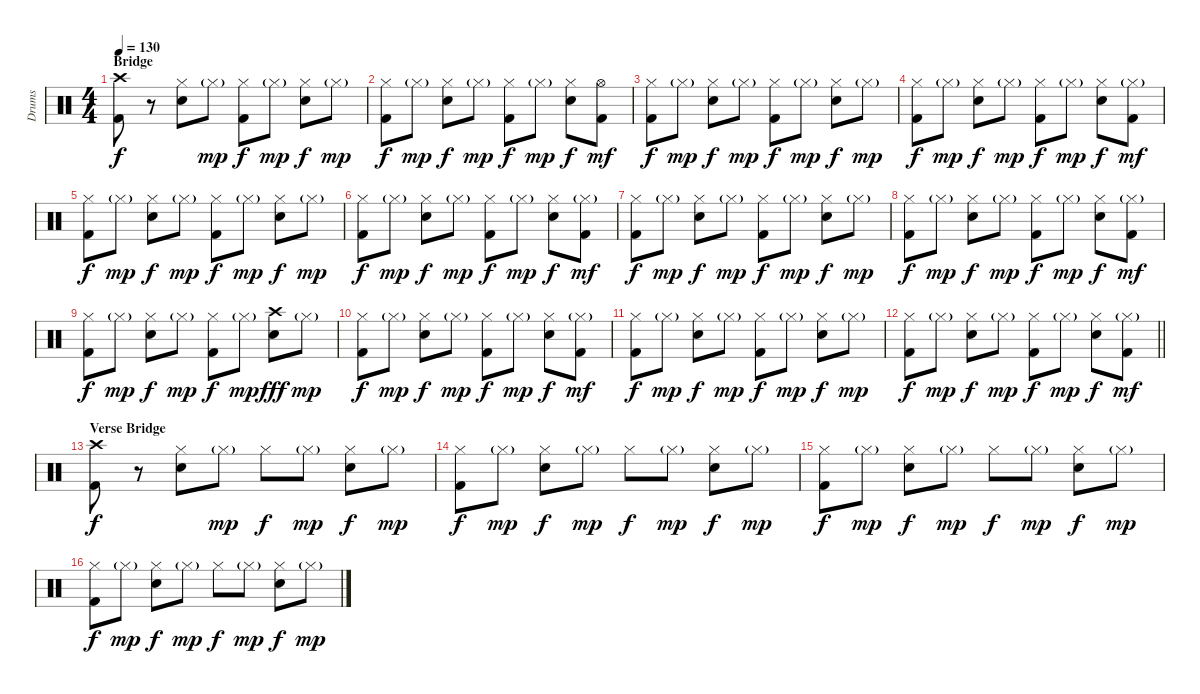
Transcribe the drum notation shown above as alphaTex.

\track ("Drums" "Drums") {instrument percussion}
\staff {score}
\articulation defaults
\ts (4 4)
\section ("" "Bridge")
\tempo 130
\clef neutral
\ks c
("Crash high (hit)" "Kick (hit) 2").8{dy f} r.8 ("Hi-Hat (closed)" "Snare (hit) 2").8 "Hi-Hat (closed)"{g}.8{dy mp} ("Hi-Hat (closed)" "Kick (hit) 2").8{dy f} "Hi-Hat (closed)"{g}.8{dy mp} ("Hi-Hat (closed)" "Snare (hit) 2").8{dy f} "Hi-Hat (closed)"{g}.8{dy mp} |
("Hi-Hat (closed)" "Kick (hit) 2").8{dy f} "Hi-Hat (closed)"{g}.8{dy mp} ("Hi-Hat (closed)" "Snare (hit) 2").8{dy f} "Hi-Hat (closed)"{g}.8{dy mp} ("Hi-Hat (closed)" "Kick (hit) 2").8{dy f} "Hi-Hat (closed)"{g}.8{dy mp} ("Hi-Hat (closed)" "Snare (hit) 2").8{dy f} ("Hi-Hat (open)" "Kick (hit) 2").8{dy mf} |
("Hi-Hat (closed)" "Kick (hit) 2").8{dy f} "Hi-Hat (closed)"{g}.8{dy mp} ("Hi-Hat (closed)" "Snare (hit) 2").8{dy f} "Hi-Hat (closed)"{g}.8{dy mp} ("Hi-Hat (closed)" "Kick (hit) 2").8{dy f} "Hi-Hat (closed)"{g}.8{dy mp} ("Hi-Hat (closed)" "Snare (hit) 2").8{dy f} "Hi-Hat (closed)"{g}.8{dy mp} |
("Hi-Hat (closed)" "Kick (hit) 2").8{dy f} "Hi-Hat (closed)"{g}.8{dy mp} ("Hi-Hat (closed)" "Snare (hit) 2").8{dy f} "Hi-Hat (closed)"{g}.8{dy mp} ("Hi-Hat (closed)" "Kick (hit) 2").8{dy f} "Hi-Hat (closed)"{g}.8{dy mp} ("Hi-Hat (closed)" "Snare (hit) 2").8{dy f} ("Hi-Hat (closed)"{g} "Kick (hit) 2").8{dy mf} |
("Hi-Hat (closed)" "Kick (hit) 2").8{dy f} "Hi-Hat (closed)"{g}.8{dy mp} ("Hi-Hat (closed)" "Snare (hit) 2").8{dy f} "Hi-Hat (closed)"{g}.8{dy mp} ("Hi-Hat (closed)" "Kick (hit) 2").8{dy f} "Hi-Hat (closed)"{g}.8{dy mp} ("Hi-Hat (closed)" "Snare (hit) 2").8{dy f} "Hi-Hat (closed)"{g}.8{dy mp} |
("Hi-Hat (closed)" "Kick (hit) 2").8{dy f} "Hi-Hat (closed)"{g}.8{dy mp} ("Hi-Hat (closed)" "Snare (hit) 2").8{dy f} "Hi-Hat (closed)"{g}.8{dy mp} ("Hi-Hat (closed)" "Kick (hit) 2").8{dy f} "Hi-Hat (closed)"{g}.8{dy mp} ("Hi-Hat (closed)" "Snare (hit) 2").8{dy f} ("Hi-Hat (closed)"{g} "Kick (hit) 2").8{dy mf} |
("Hi-Hat (closed)" "Kick (hit) 2").8{dy f} "Hi-Hat (closed)"{g}.8{dy mp} ("Hi-Hat (closed)" "Snare (hit) 2").8{dy f} "Hi-Hat (closed)"{g}.8{dy mp} ("Hi-Hat (closed)" "Kick (hit) 2").8{dy f} "Hi-Hat (closed)"{g}.8{dy mp} ("Hi-Hat (closed)" "Snare (hit) 2").8{dy f} "Hi-Hat (closed)"{g}.8{dy mp} |
("Hi-Hat (closed)" "Kick (hit) 2").8{dy f} "Hi-Hat (closed)"{g}.8{dy mp} ("Hi-Hat (closed)" "Snare (hit) 2").8{dy f} "Hi-Hat (closed)"{g}.8{dy mp} ("Hi-Hat (closed)" "Kick (hit) 2").8{dy f} "Hi-Hat (closed)"{g}.8{dy mp} ("Hi-Hat (closed)" "Snare (hit) 2").8{dy f} ("Hi-Hat (closed)"{g} "Kick (hit) 2").8{dy mf} |
("Hi-Hat (closed)" "Kick (hit) 2").8{dy f} "Hi-Hat (closed)"{g}.8{dy mp} ("Hi-Hat (closed)" "Snare (hit) 2").8{dy f} "Hi-Hat (closed)"{g}.8{dy mp} ("Hi-Hat (closed)" "Kick (hit) 2").8{dy f} "Hi-Hat (closed)"{g}.8{dy mp} ("Crash high (hit)" "Snare (hit) 2").8{dy fff} "Hi-Hat (closed)"{g}.8{dy mp} |
("Hi-Hat (closed)" "Kick (hit) 2").8{dy f} "Hi-Hat (closed)"{g}.8{dy mp} ("Hi-Hat (closed)" "Snare (hit) 2").8{dy f} "Hi-Hat (closed)"{g}.8{dy mp} ("Hi-Hat (closed)" "Kick (hit) 2").8{dy f} "Hi-Hat (closed)"{g}.8{dy mp} ("Hi-Hat (closed)" "Snare (hit) 2").8{dy f} ("Hi-Hat (closed)"{g} "Kick (hit) 2").8{dy mf} |
("Hi-Hat (closed)" "Kick (hit) 2").8{dy f} "Hi-Hat (closed)"{g}.8{dy mp} ("Hi-Hat (closed)" "Snare (hit) 2").8{dy f} "Hi-Hat (closed)"{g}.8{dy mp} ("Hi-Hat (closed)" "Kick (hit) 2").8{dy f} "Hi-Hat (closed)"{g}.8{dy mp} ("Hi-Hat (closed)" "Snare (hit) 2").8{dy f} "Hi-Hat (closed)"{g}.8{dy mp} |
\barLineRight lightlight
("Hi-Hat (closed)" "Kick (hit) 2").8{dy f} "Hi-Hat (closed)"{g}.8{dy mp} ("Hi-Hat (closed)" "Snare (hit) 2").8{dy f} "Hi-Hat (closed)"{g}.8{dy mp} ("Hi-Hat (closed)" "Kick (hit) 2").8{dy f} "Hi-Hat (closed)"{g}.8{dy mp} ("Hi-Hat (closed)" "Snare (hit) 2").8{dy f} ("Hi-Hat (closed)"{g} "Kick (hit) 2").8{dy mf} |
\section ("" "Verse Bridge")
("Crash high (hit)" "Kick (hit) 2").8{dy f} r.8 ("Hi-Hat (closed)" "Snare (hit) 2").8 "Hi-Hat (closed)"{g}.8{dy mp} "Hi-Hat (closed)".8{dy f} "Hi-Hat (closed)"{g}.8{dy mp} ("Hi-Hat (closed)" "Snare (hit) 2").8{dy f} "Hi-Hat (closed)"{g}.8{dy mp} |
("Hi-Hat (closed)" "Kick (hit) 2").8{dy f} "Hi-Hat (closed)"{g}.8{dy mp} ("Hi-Hat (closed)" "Snare (hit) 2").8{dy f} "Hi-Hat (closed)"{g}.8{dy mp} "Hi-Hat (closed)".8{dy f} "Hi-Hat (closed)"{g}.8{dy mp} ("Hi-Hat (closed)" "Snare (hit) 2").8{dy f} "Hi-Hat (closed)"{g}.8{dy mp} |
("Hi-Hat (closed)" "Kick (hit) 2").8{dy f} "Hi-Hat (closed)"{g}.8{dy mp} ("Hi-Hat (closed)" "Snare (hit) 2").8{dy f} "Hi-Hat (closed)"{g}.8{dy mp} "Hi-Hat (closed)".8{dy f} "Hi-Hat (closed)"{g}.8{dy mp} ("Hi-Hat (closed)" "Snare (hit) 2").8{dy f} "Hi-Hat (closed)"{g}.8{dy mp} |
("Hi-Hat (closed)" "Kick (hit) 2").8{dy f} "Hi-Hat (closed)"{g}.8{dy mp} ("Hi-Hat (closed)" "Snare (hit) 2").8{dy f} "Hi-Hat (closed)"{g}.8{dy mp} "Hi-Hat (closed)".8{dy f} "Hi-Hat (closed)"{g}.8{dy mp} ("Hi-Hat (closed)" "Snare (hit) 2").8{dy f} "Hi-Hat (closed)"{g}.8{dy mp}
